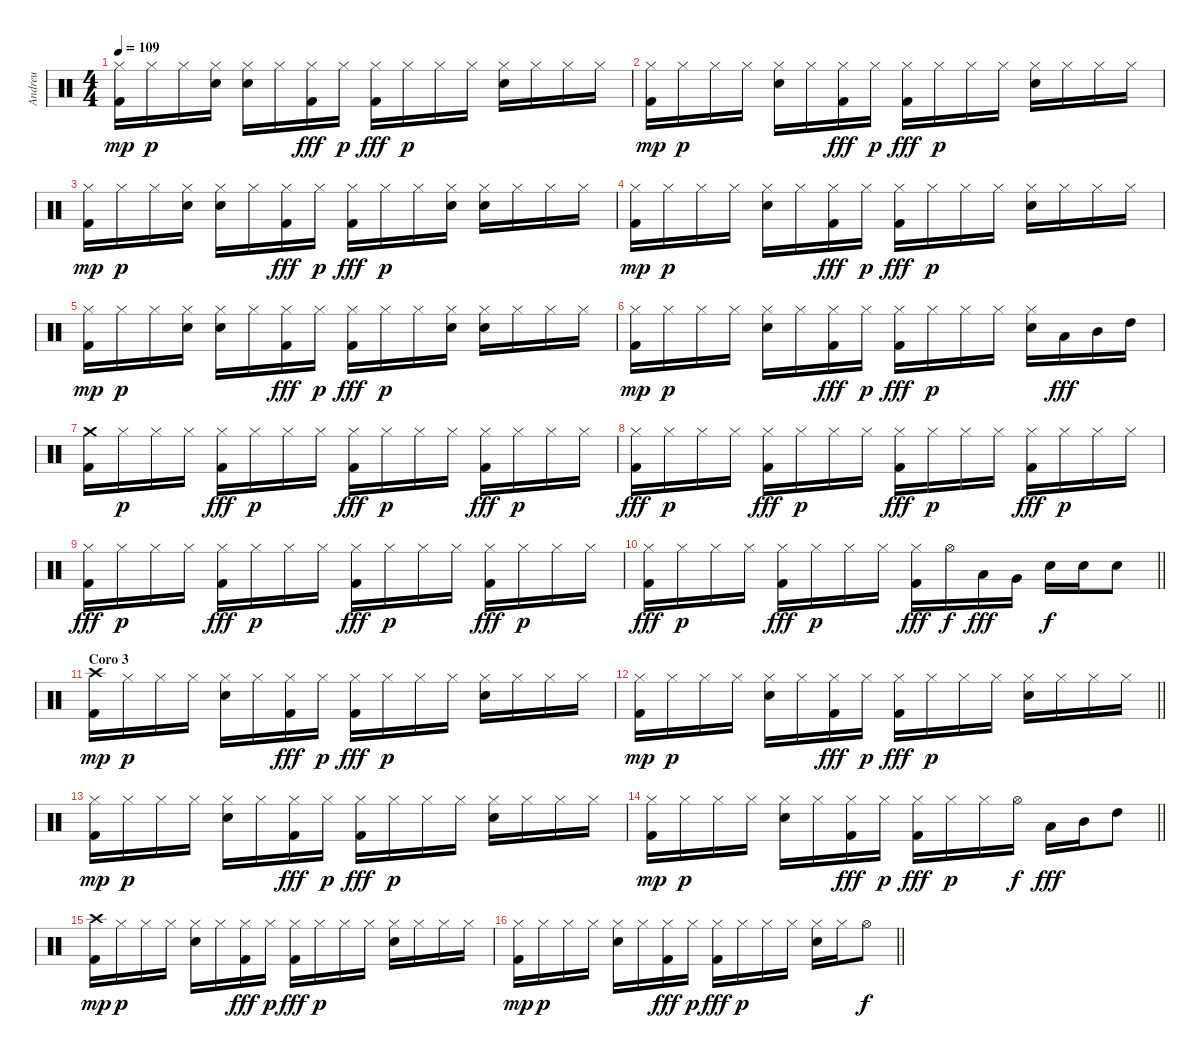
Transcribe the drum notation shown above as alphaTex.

\track ("Andreu" "Andreu") {instrument percussion}
\staff {score}
\articulation defaults
\ts (4 4)
\tempo 109
\clef neutral
\ks c
("Hi-Hat (closed)" "Kick (hit) 2").16{dy mp} "Hi-Hat (closed)".16{dy p} "Hi-Hat (closed)".16 ("Hi-Hat (closed)" "Snare (hit) 2").16 ("Hi-Hat (closed)" "Snare (hit) 2").16 "Hi-Hat (closed)".16 ("Hi-Hat (closed)" "Kick (hit) 2").16{dy fff} "Hi-Hat (closed)".16{dy p} ("Hi-Hat (closed)" "Kick (hit) 2").16{dy fff} "Hi-Hat (closed)".16{dy p} "Hi-Hat (closed)".16 "Hi-Hat (closed)".16 ("Hi-Hat (closed)" "Snare (hit) 2").16 "Hi-Hat (closed)".16 "Hi-Hat (closed)".16 "Hi-Hat (closed)".16 |
("Hi-Hat (closed)" "Kick (hit) 2").16{dy mp} "Hi-Hat (closed)".16{dy p} "Hi-Hat (closed)".16 "Hi-Hat (closed)".16 ("Hi-Hat (closed)" "Snare (hit) 2").16 "Hi-Hat (closed)".16 ("Hi-Hat (closed)" "Kick (hit) 2").16{dy fff} "Hi-Hat (closed)".16{dy p} ("Hi-Hat (closed)" "Kick (hit) 2").16{dy fff} "Hi-Hat (closed)".16{dy p} "Hi-Hat (closed)".16 "Hi-Hat (closed)".16 ("Hi-Hat (closed)" "Snare (hit) 2").16 "Hi-Hat (closed)".16 "Hi-Hat (closed)".16 "Hi-Hat (closed)".16 |
("Hi-Hat (closed)" "Kick (hit) 2").16{dy mp} "Hi-Hat (closed)".16{dy p} "Hi-Hat (closed)".16 ("Hi-Hat (closed)" "Snare (hit) 2").16 ("Hi-Hat (closed)" "Snare (hit) 2").16 "Hi-Hat (closed)".16 ("Hi-Hat (closed)" "Kick (hit) 2").16{dy fff} "Hi-Hat (closed)".16{dy p} ("Hi-Hat (closed)" "Kick (hit) 2").16{dy fff} "Hi-Hat (closed)".16{dy p} "Hi-Hat (closed)".16 ("Hi-Hat (closed)" "Snare (hit) 2").16 ("Hi-Hat (closed)" "Snare (hit) 2").16 "Hi-Hat (closed)".16 "Hi-Hat (closed)".16 "Hi-Hat (closed)".16 |
("Hi-Hat (closed)" "Kick (hit) 2").16{dy mp} "Hi-Hat (closed)".16{dy p} "Hi-Hat (closed)".16 "Hi-Hat (closed)".16 ("Hi-Hat (closed)" "Snare (hit) 2").16 "Hi-Hat (closed)".16 ("Hi-Hat (closed)" "Kick (hit) 2").16{dy fff} "Hi-Hat (closed)".16{dy p} ("Hi-Hat (closed)" "Kick (hit) 2").16{dy fff} "Hi-Hat (closed)".16{dy p} "Hi-Hat (closed)".16 "Hi-Hat (closed)".16 ("Hi-Hat (closed)" "Snare (hit) 2").16 "Hi-Hat (closed)".16 "Hi-Hat (closed)".16 "Hi-Hat (closed)".16 |
("Hi-Hat (closed)" "Kick (hit) 2").16{dy mp} "Hi-Hat (closed)".16{dy p} "Hi-Hat (closed)".16 ("Hi-Hat (closed)" "Snare (hit) 2").16 ("Hi-Hat (closed)" "Snare (hit) 2").16 "Hi-Hat (closed)".16 ("Hi-Hat (closed)" "Kick (hit) 2").16{dy fff} "Hi-Hat (closed)".16{dy p} ("Hi-Hat (closed)" "Kick (hit) 2").16{dy fff} "Hi-Hat (closed)".16{dy p} "Hi-Hat (closed)".16 ("Hi-Hat (closed)" "Snare (hit) 2").16 ("Hi-Hat (closed)" "Snare (hit) 2").16 "Hi-Hat (closed)".16 "Hi-Hat (closed)".16 "Hi-Hat (closed)".16 |
("Hi-Hat (closed)" "Kick (hit) 2").16{dy mp} "Hi-Hat (closed)".16{dy p} "Hi-Hat (closed)".16 "Hi-Hat (closed)".16 ("Hi-Hat (closed)" "Snare (hit) 2").16 "Hi-Hat (closed)".16 ("Hi-Hat (closed)" "Kick (hit) 2").16{dy fff} "Hi-Hat (closed)".16{dy p} ("Hi-Hat (closed)" "Kick (hit) 2").16{dy fff} "Hi-Hat (closed)".16{dy p} "Hi-Hat (closed)".16 "Hi-Hat (closed)".16 ("Hi-Hat (closed)" "Snare (hit) 2").16 "Low Tom (hit)".16{dy fff} "Mid Tom (hit)".16 "High Tom (hit)".16 |
("Crash medium (hit)" "Kick (hit) 2").16 "Hi-Hat (closed)".16{dy p} "Hi-Hat (closed)".16 "Hi-Hat (closed)".16 ("Hi-Hat (closed)" "Kick (hit) 2").16{dy fff} "Hi-Hat (closed)".16{dy p} "Hi-Hat (closed)".16 "Hi-Hat (closed)".16 ("Hi-Hat (closed)" "Kick (hit) 2").16{dy fff} "Hi-Hat (closed)".16{dy p} "Hi-Hat (closed)".16 "Hi-Hat (closed)".16 ("Hi-Hat (closed)" "Kick (hit) 2").16{dy fff} "Hi-Hat (closed)".16{dy p} "Hi-Hat (closed)".16 "Hi-Hat (closed)".16 |
("Hi-Hat (closed)" "Kick (hit) 2").16{dy fff} "Hi-Hat (closed)".16{dy p} "Hi-Hat (closed)".16 "Hi-Hat (closed)".16 ("Hi-Hat (closed)" "Kick (hit) 2").16{dy fff} "Hi-Hat (closed)".16{dy p} "Hi-Hat (closed)".16 "Hi-Hat (closed)".16 ("Hi-Hat (closed)" "Kick (hit) 2").16{dy fff} "Hi-Hat (closed)".16{dy p} "Hi-Hat (closed)".16 "Hi-Hat (closed)".16 ("Hi-Hat (closed)" "Kick (hit) 2").16{dy fff} "Hi-Hat (closed)".16{dy p} "Hi-Hat (closed)".16 "Hi-Hat (closed)".16 |
("Hi-Hat (closed)" "Kick (hit) 2").16{dy fff} "Hi-Hat (closed)".16{dy p} "Hi-Hat (closed)".16 "Hi-Hat (closed)".16 ("Hi-Hat (closed)" "Kick (hit) 2").16{dy fff} "Hi-Hat (closed)".16{dy p} "Hi-Hat (closed)".16 "Hi-Hat (closed)".16 ("Hi-Hat (closed)" "Kick (hit) 2").16{dy fff} "Hi-Hat (closed)".16{dy p} "Hi-Hat (closed)".16 "Hi-Hat (closed)".16 ("Hi-Hat (closed)" "Kick (hit) 2").16{dy fff} "Hi-Hat (closed)".16{dy p} "Hi-Hat (closed)".16 "Hi-Hat (closed)".16 |
\barLineRight lightlight
("Hi-Hat (closed)" "Kick (hit) 2").16{dy fff} "Hi-Hat (closed)".16{dy p} "Hi-Hat (closed)".16 "Hi-Hat (closed)".16 ("Hi-Hat (closed)" "Kick (hit) 2").16{dy fff} "Hi-Hat (closed)".16{dy p} "Hi-Hat (closed)".16 "Hi-Hat (closed)".16 ("Hi-Hat (closed)" "Kick (hit) 2").16{dy fff} "Hi-Hat (open)".16{dy f} "Low Floor Tom (hit)".16{dy fff} "Very Low Tom (hit)".16 "Snare (hit) 2".16{dy f} "Snare (hit) 2".16 "Snare (hit) 2".8 |
\section ("" "Coro 3")
("Crash high (hit)" "Kick (hit) 2").16{dy mp} "Hi-Hat (closed)".16{dy p} "Hi-Hat (closed)".16 "Hi-Hat (closed)".16 ("Hi-Hat (closed)" "Snare (hit) 2").16 "Hi-Hat (closed)".16 ("Hi-Hat (closed)" "Kick (hit) 2").16{dy fff} "Hi-Hat (closed)".16{dy p} ("Hi-Hat (closed)" "Kick (hit) 2").16{dy fff} "Hi-Hat (closed)".16{dy p} "Hi-Hat (closed)".16 "Hi-Hat (closed)".16 ("Hi-Hat (closed)" "Snare (hit) 2").16 "Hi-Hat (closed)".16 "Hi-Hat (closed)".16 "Hi-Hat (closed)".16 |
\barLineRight lightlight
("Hi-Hat (closed)" "Kick (hit) 2").16{dy mp} "Hi-Hat (closed)".16{dy p} "Hi-Hat (closed)".16 "Hi-Hat (closed)".16 ("Hi-Hat (closed)" "Snare (hit) 2").16 "Hi-Hat (closed)".16 ("Hi-Hat (closed)" "Kick (hit) 2").16{dy fff} "Hi-Hat (closed)".16{dy p} ("Hi-Hat (closed)" "Kick (hit) 2").16{dy fff} "Hi-Hat (closed)".16{dy p} "Hi-Hat (closed)".16 "Hi-Hat (closed)".16 ("Hi-Hat (closed)" "Snare (hit) 2").16 "Hi-Hat (closed)".16 "Hi-Hat (closed)".16 "Hi-Hat (closed)".16 |
("Hi-Hat (closed)" "Kick (hit) 2").16{dy mp} "Hi-Hat (closed)".16{dy p} "Hi-Hat (closed)".16 "Hi-Hat (closed)".16 ("Hi-Hat (closed)" "Snare (hit) 2").16 "Hi-Hat (closed)".16 ("Hi-Hat (closed)" "Kick (hit) 2").16{dy fff} "Hi-Hat (closed)".16{dy p} ("Hi-Hat (closed)" "Kick (hit) 2").16{dy fff} "Hi-Hat (closed)".16{dy p} "Hi-Hat (closed)".16 "Hi-Hat (closed)".16 ("Hi-Hat (closed)" "Snare (hit) 2").16 "Hi-Hat (closed)".16 "Hi-Hat (closed)".16 "Hi-Hat (closed)".16 |
\barLineRight lightlight
("Hi-Hat (closed)" "Kick (hit) 2").16{dy mp} "Hi-Hat (closed)".16{dy p} "Hi-Hat (closed)".16 "Hi-Hat (closed)".16 ("Hi-Hat (closed)" "Snare (hit) 2").16 "Hi-Hat (closed)".16 ("Hi-Hat (closed)" "Kick (hit) 2").16{dy fff} "Hi-Hat (closed)".16{dy p} ("Hi-Hat (closed)" "Kick (hit) 2").16{dy fff} "Hi-Hat (closed)".16{dy p} "Hi-Hat (closed)".16 "Hi-Hat (open)".16{dy f} "Low Tom (hit)".16{dy fff} "Mid Tom (hit)".16 "High Tom (hit)".8 |
("Crash high (hit)" "Kick (hit) 2").16{dy mp} "Hi-Hat (closed)".16{dy p} "Hi-Hat (closed)".16 "Hi-Hat (closed)".16 ("Hi-Hat (closed)" "Snare (hit) 2").16 "Hi-Hat (closed)".16 ("Hi-Hat (closed)" "Kick (hit) 2").16{dy fff} "Hi-Hat (closed)".16{dy p} ("Hi-Hat (closed)" "Kick (hit) 2").16{dy fff} "Hi-Hat (closed)".16{dy p} "Hi-Hat (closed)".16 "Hi-Hat (closed)".16 ("Hi-Hat (closed)" "Snare (hit) 2").16 "Hi-Hat (closed)".16 "Hi-Hat (closed)".16 "Hi-Hat (closed)".16 |
\barLineRight lightlight
("Hi-Hat (closed)" "Kick (hit) 2").16{dy mp} "Hi-Hat (closed)".16{dy p} "Hi-Hat (closed)".16 "Hi-Hat (closed)".16 ("Hi-Hat (closed)" "Snare (hit) 2").16 "Hi-Hat (closed)".16 ("Hi-Hat (closed)" "Kick (hit) 2").16{dy fff} "Hi-Hat (closed)".16{dy p} ("Hi-Hat (closed)" "Kick (hit) 2").16{dy fff} "Hi-Hat (closed)".16{dy p} "Hi-Hat (closed)".16 "Hi-Hat (closed)".16 ("Hi-Hat (closed)" "Snare (hit) 2").16 "Hi-Hat (closed)".16 "Hi-Hat (open)".8{dy f}
